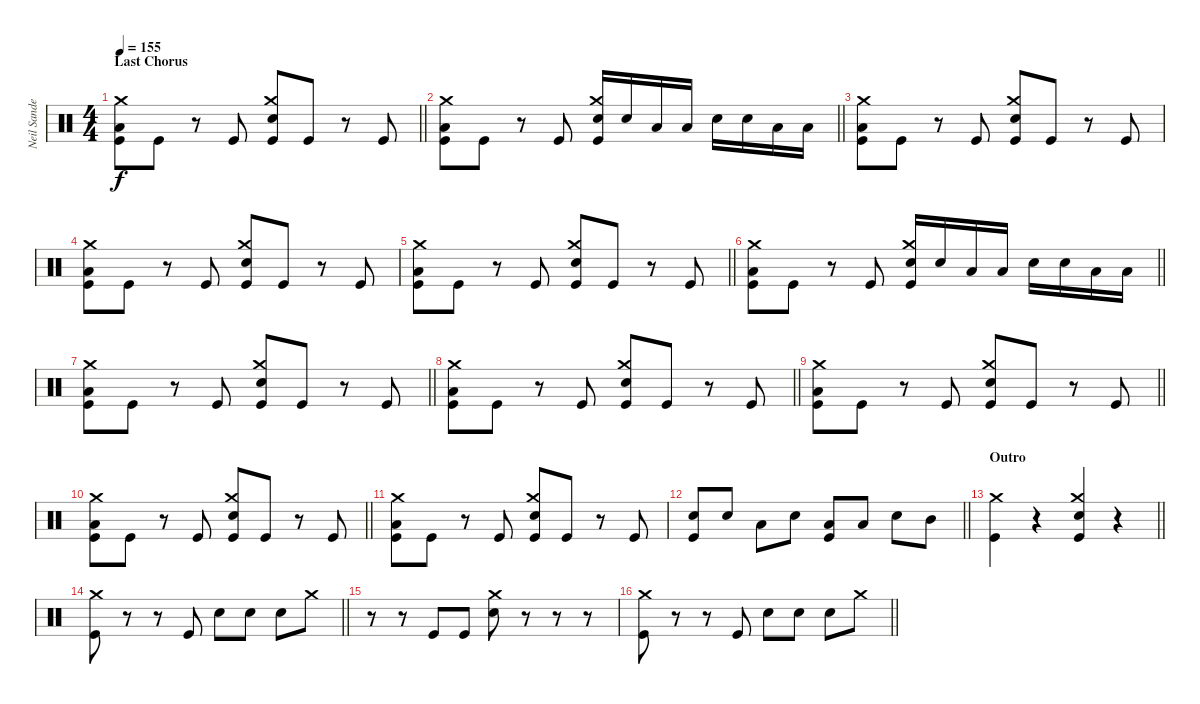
\track ("Neil Sanderson" "Neil Sande") {instrument percussion}
\staff {score}
\articulation defaults
\ts (4 4)
\section ("" "Last Chorus")
\tempo 155
\clef neutral
\barLineRight lightlight
\ks c
("Kick (hit)" "Low Tom (hit)" "Crash medium (hit)").8{dy f} "Kick (hit)".8 r.8 "Kick (hit)".8 ("Kick (hit)" "Electric Snare (hit)" "Crash medium (hit)").8 "Kick (hit)".8 r.8 "Kick (hit)".8 |
\barLineRight lightlight
("Kick (hit)" "Low Tom (hit)" "Crash medium (hit)").8 "Kick (hit)".8 r.8 "Kick (hit)".8 ("Kick (hit)" "Electric Snare (hit)" "Crash medium (hit)").16 "Electric Snare (hit)".16 "Low Tom (hit)".16 "Low Tom (hit)".16 "Electric Snare (hit)".16 "Electric Snare (hit)".16 "Low Tom (hit)".16 "Low Tom (hit)".16 |
("Kick (hit)" "Low Tom (hit)" "Crash medium (hit)").8 "Kick (hit)".8 r.8 "Kick (hit)".8 ("Kick (hit)" "Electric Snare (hit)" "Crash medium (hit)").8 "Kick (hit)".8 r.8 "Kick (hit)".8 |
("Kick (hit)" "Low Tom (hit)" "Crash medium (hit)").8 "Kick (hit)".8 r.8 "Kick (hit)".8 ("Kick (hit)" "Electric Snare (hit)" "Crash medium (hit)").8 "Kick (hit)".8 r.8 "Kick (hit)".8 |
\barLineRight lightlight
("Kick (hit)" "Low Tom (hit)" "Crash medium (hit)").8 "Kick (hit)".8 r.8 "Kick (hit)".8 ("Kick (hit)" "Electric Snare (hit)" "Crash medium (hit)").8 "Kick (hit)".8 r.8 "Kick (hit)".8 |
\barLineRight lightlight
("Kick (hit)" "Low Tom (hit)" "Crash medium (hit)").8 "Kick (hit)".8 r.8 "Kick (hit)".8 ("Kick (hit)" "Electric Snare (hit)" "Crash medium (hit)").16 "Electric Snare (hit)".16 "Low Tom (hit)".16 "Low Tom (hit)".16 "Electric Snare (hit)".16 "Electric Snare (hit)".16 "Low Tom (hit)".16 "Low Tom (hit)".16 |
\barLineRight lightlight
("Kick (hit)" "Low Tom (hit)" "Crash medium (hit)").8 "Kick (hit)".8 r.8 "Kick (hit)".8 ("Kick (hit)" "Electric Snare (hit)" "Crash medium (hit)").8 "Kick (hit)".8 r.8 "Kick (hit)".8 |
\barLineRight lightlight
("Kick (hit)" "Low Tom (hit)" "Crash medium (hit)").8 "Kick (hit)".8 r.8 "Kick (hit)".8 ("Kick (hit)" "Electric Snare (hit)" "Crash medium (hit)").8 "Kick (hit)".8 r.8 "Kick (hit)".8 |
\barLineRight lightlight
("Kick (hit)" "Low Tom (hit)" "Crash medium (hit)").8 "Kick (hit)".8 r.8 "Kick (hit)".8 ("Kick (hit)" "Electric Snare (hit)" "Crash medium (hit)").8 "Kick (hit)".8 r.8 "Kick (hit)".8 |
\barLineRight lightlight
("Kick (hit)" "Low Tom (hit)" "Crash medium (hit)").8 "Kick (hit)".8 r.8 "Kick (hit)".8 ("Kick (hit)" "Electric Snare (hit)" "Crash medium (hit)").8 "Kick (hit)".8 r.8 "Kick (hit)".8 |
("Kick (hit)" "Low Tom (hit)" "Crash medium (hit)").8 "Kick (hit)".8 r.8 "Kick (hit)".8 ("Kick (hit)" "Electric Snare (hit)" "Crash medium (hit)").8 "Kick (hit)".8 r.8 "Kick (hit)".8 |
\barLineRight lightlight
("Kick (hit)" "Electric Snare (hit)").8 "Electric Snare (hit)".8 "Low Tom (hit)".8 "Electric Snare (hit)".8 ("Kick (hit)" "Low Tom (hit)").8 "Low Tom (hit)".8 "Electric Snare (hit)".8 "Mid Tom (hit)".8 |
\section ("" "Outro")
\barLineRight lightlight
("Kick (hit)" "Crash medium (hit)").4 r.4 ("Kick (hit)" "Electric Snare (hit)" "Crash medium (hit)").4 r.4 |
\barLineRight lightlight
("Kick (hit)" "Crash medium (hit)").8 r.8 r.8 "Kick (hit)".8 "Electric Snare (hit)".8 "Electric Snare (hit)".8 "Electric Snare (hit)".8 "Crash medium (hit)".8 |
r.8 r.8 "Kick (hit)".8 "Kick (hit)".8 ("Electric Snare (hit)" "Crash medium (hit)").8 r.8 r.8 r.8 |
\barLineRight lightlight
("Kick (hit)" "Crash medium (hit)").8 r.8 r.8 "Kick (hit)".8 "Electric Snare (hit)".8 "Electric Snare (hit)".8 "Electric Snare (hit)".8 "Crash medium (hit)".8
